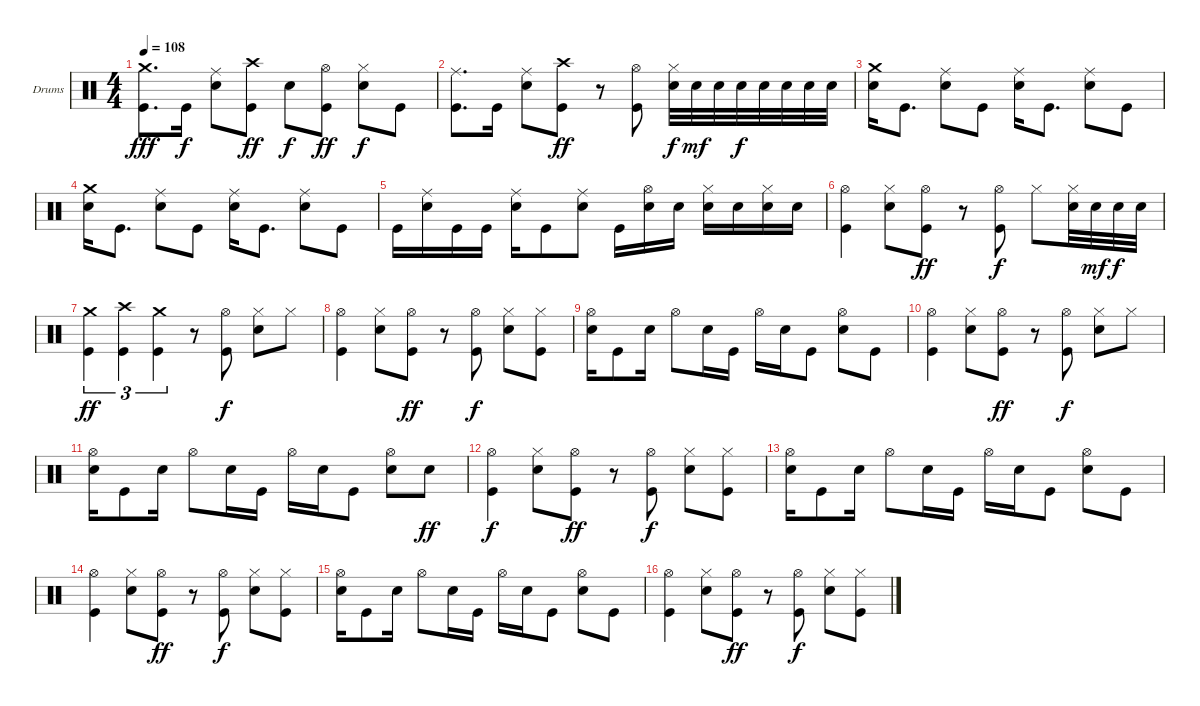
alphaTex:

\bracketExtendMode groupsimilarinstruments
\firstSystemTrackNameOrientation horizontal
\otherSystemsTrackNameOrientation horizontal
\track ("Drumkit" "Drums") {instrument percussion}
\staff {score}
\articulation defaults
\ts (4 4)
\tempo 108
\clef neutral
\ks c
("Crash medium (hit)" "Kick (hit)").8{d dy fff} "Kick (hit)".16{dy f} ("Ride (middle)" "Snare (hit) 2").8 ("Crash high (hit)" "Kick (hit)").8{dy ff} "Snare (hit) 2".8{dy f} ("Hi-Hat (open)" "Kick (hit)").8{dy ff} ("Hi-Hat (closed)" "Snare (hit) 2").8{dy f} "Kick (hit)".8 |
("Ride (middle)" "Kick (hit)").8{d} "Kick (hit)".16 ("Ride (middle)" "Snare (hit) 2").8 ("Crash high (hit)" "Kick (hit)").8{dy ff} r.8 ("Hi-Hat (open)" "Kick (hit)").8 ("Hi-Hat (closed)" "Snare (hit) 2").32{dy f} "Snare (hit) 2".32{dy mf} "Snare (hit) 2".32 "Snare (hit) 2".32{dy f} "Snare (hit) 2".32 "Snare (hit) 2".32 "Snare (hit) 2".32 "Snare (hit) 2".32 |
("Crash medium (hit)" "Snare (hit) 2").16 "Kick (hit)".8{d} ("Ride (middle)" "Snare (hit) 2").8 "Kick (hit)".8 ("Ride (middle)" "Snare (hit) 2").16 "Kick (hit)".8{d} ("Ride (middle)" "Snare (hit) 2").8 "Kick (hit)".8 |
("Crash medium (hit)" "Snare (hit) 2").16 "Kick (hit)".8{d} ("Ride (middle)" "Snare (hit) 2").8 "Kick (hit)".8 ("Ride (middle)" "Snare (hit) 2").16 "Kick (hit)".8{d} ("Ride (middle)" "Snare (hit) 2").8 "Kick (hit)".8 |
"Kick (hit)".16 ("Ride (middle)" "Snare (hit) 2").16 "Kick (hit)".16 "Kick (hit)".16 ("Ride (middle)" "Snare (hit) 2").16 "Kick (hit)".8 ("Ride (middle)" "Snare (hit) 2").8 "Kick (hit)".16 ("Hi-Hat (open)" "Snare (hit) 2").16 "Snare (hit) 2".16 ("Hi-Hat (closed)" "Snare (hit) 2").16 "Snare (hit) 2".16 ("Hi-Hat (closed)" "Snare (hit) 2").16 "Snare (hit) 2".16 |
("Hi-Hat (open)" "Kick (hit)").4 ("Hi-Hat (closed)" "Snare (hit) 2").8 ("Hi-Hat (open)" "Kick (hit)").8{dy ff} r.8 ("Hi-Hat (open)" "Kick (hit)").8{dy f} "Hi-Hat (closed)".8 ("Hi-Hat (closed)" "Snare (hit) 2").32 "Snare (hit) 2".32{dy mf} "Snare (hit) 2".32{dy f} "Snare (hit) 2".32 |
("Crash medium (hit)" "Kick (hit)").4{tu (3 2) dy ff} ("Crash high (hit)" "Kick (hit)").4{tu (3 2)} ("Crash medium (hit)" "Kick (hit)").4{tu (3 2)} r.8 ("Hi-Hat (open)" "Kick (hit)").8{dy f} ("Hi-Hat (closed)" "Snare (hit) 2").8 "Hi-Hat (closed)".8 |
("Hi-Hat (open)" "Kick (hit)").4 ("Hi-Hat (closed)" "Snare (hit) 2").8 ("Hi-Hat (open)" "Kick (hit)").8{dy ff} r.8 ("Hi-Hat (open)" "Kick (hit)").8{dy f} ("Hi-Hat (closed)" "Snare (hit) 2").8 ("Hi-Hat (closed)" "Kick (hit)").8 |
("Hi-Hat (open)" "Snare (hit) 2").16 "Kick (hit)".8 "Snare (hit) 2".16 "Hi-Hat (open)".8 "Snare (hit) 2".16 "Kick (hit)".16 "Hi-Hat (open)".16 "Snare (hit) 2".16 "Kick (hit)".8 ("Hi-Hat (open)" "Snare (hit) 2").8 "Kick (hit)".8 |
("Hi-Hat (open)" "Kick (hit)").4 ("Hi-Hat (closed)" "Snare (hit) 2").8 ("Hi-Hat (open)" "Kick (hit)").8{dy ff} r.8 ("Hi-Hat (open)" "Kick (hit)").8{dy f} ("Hi-Hat (closed)" "Snare (hit) 2").8 "Hi-Hat (closed)".8 |
("Hi-Hat (open)" "Snare (hit) 2").16 "Kick (hit)".8 "Snare (hit) 2".16 "Hi-Hat (open)".8 "Snare (hit) 2".16 "Kick (hit)".16 "Hi-Hat (open)".16 "Snare (hit) 2".16 "Kick (hit)".8 ("Hi-Hat (open)" "Snare (hit) 2").8 "Snare (hit) 2".8{dy ff} |
("Hi-Hat (open)" "Kick (hit)").4{dy f} ("Hi-Hat (closed)" "Snare (hit) 2").8 ("Hi-Hat (open)" "Kick (hit)").8{dy ff} r.8 ("Hi-Hat (open)" "Kick (hit)").8{dy f} ("Hi-Hat (closed)" "Snare (hit) 2").8 ("Hi-Hat (closed)" "Kick (hit)").8 |
("Hi-Hat (open)" "Snare (hit) 2").16 "Kick (hit)".8 "Snare (hit) 2".16 "Hi-Hat (open)".8 "Snare (hit) 2".16 "Kick (hit)".16 "Hi-Hat (open)".16 "Snare (hit) 2".16 "Kick (hit)".8 ("Hi-Hat (open)" "Snare (hit) 2").8 "Kick (hit)".8 |
("Hi-Hat (open)" "Kick (hit)").4 ("Hi-Hat (closed)" "Snare (hit) 2").8 ("Hi-Hat (open)" "Kick (hit)").8{dy ff} r.8 ("Hi-Hat (open)" "Kick (hit)").8{dy f} ("Hi-Hat (closed)" "Snare (hit) 2").8 ("Hi-Hat (closed)" "Kick (hit)").8 |
("Hi-Hat (open)" "Snare (hit) 2").16 "Kick (hit)".8 "Snare (hit) 2".16 "Hi-Hat (open)".8 "Snare (hit) 2".16 "Kick (hit)".16 "Hi-Hat (open)".16 "Snare (hit) 2".16 "Kick (hit)".8 ("Hi-Hat (open)" "Snare (hit) 2").8 "Kick (hit)".8 |
("Hi-Hat (open)" "Kick (hit)").4 ("Hi-Hat (closed)" "Snare (hit) 2").8 ("Hi-Hat (open)" "Kick (hit)").8{dy ff} r.8 ("Hi-Hat (open)" "Kick (hit)").8{dy f} ("Hi-Hat (closed)" "Snare (hit) 2").8 ("Hi-Hat (closed)" "Kick (hit)").8
